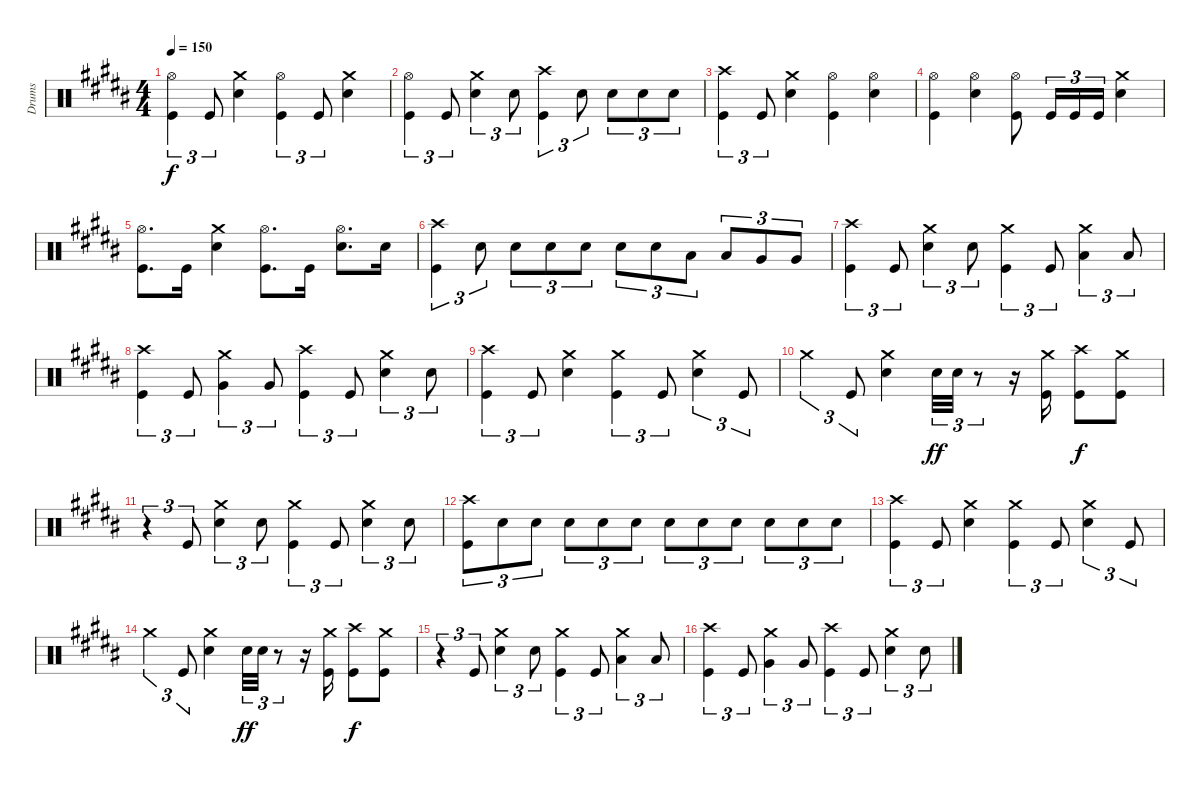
\track ("Drums" "Drums") {instrument percussion}
\staff {score}
\articulation defaults
\ts (4 4)
\tempo 150
\clef neutral
\ks g#minor
("Hi-Hat (open)" "Kick (hit)").4{tu (3 2) dy f} "Kick (hit)".8{tu (3 2)} ("Crash medium (hit)" "Snare (hit) 2").4 ("Hi-Hat (open)" "Kick (hit)").4{tu (3 2)} "Kick (hit)".8{tu (3 2)} ("Crash medium (hit)" "Snare (hit) 2").4 |
("Hi-Hat (open)" "Kick (hit)").4{tu (3 2)} "Kick (hit)".8{tu (3 2)} ("Crash medium (hit)" "Snare (hit) 2").4{tu (3 2)} "Snare (hit) 2".8{tu (3 2)} ("Kick (hit)" "Crash high (hit)").4{tu (3 2)} "Snare (hit) 2".8{tu (3 2)} "Snare (hit) 2".8{tu (3 2)} "Snare (hit) 2".8{tu (3 2)} "Snare (hit) 2".8{tu (3 2)} |
\ks b
("Crash high (hit)" "Kick (hit)").4{tu (3 2)} "Kick (hit)".8{tu (3 2)} ("Crash medium (hit)" "Snare (hit) 2").4 ("Kick (hit)" "Hi-Hat (open)").4 ("Snare (hit) 2" "Hi-Hat (open)").4 |
\ks g#minor
("Kick (hit)" "Hi-Hat (open)").4 ("Snare (hit) 2" "Hi-Hat (open)").4 ("Kick (hit)" "Hi-Hat (open)").8 "Kick (hit)".16{tu (3 2)} "Kick (hit)".16{tu (3 2)} "Kick (hit)".16{tu (3 2)} ("Snare (hit) 2" "Crash medium (hit)").4 |
("Hi-Hat (open)" "Kick (hit)").8{d} "Kick (hit)".16 ("Crash medium (hit)" "Snare (hit) 2").4 ("Hi-Hat (open)" "Kick (hit)").8{d} "Kick (hit)".16 ("Hi-Hat (open)" "Snare (hit) 2").8{d} "Snare (hit) 2".16 |
("Kick (hit)" "Crash high (hit)").4{tu (3 2)} "Snare (hit) 2".8{tu (3 2)} "Snare (hit) 2".8{tu (3 2)} "Snare (hit) 2".8{tu (3 2)} "Snare (hit) 2".8{tu (3 2)} "Snare (hit) 2".8{tu (3 2)} "Snare (hit) 2".8{tu (3 2)} "Low Tom (hit)".8{tu (3 2)} "Low Tom (hit)".8{tu (3 2)} "Very Low Tom (hit)".8{tu (3 2)} "Very Low Tom (hit)".8{tu (3 2)} |
\ks b
("Crash high (hit)" "Kick (hit)").4{tu (3 2)} "Kick (hit)".8{tu (3 2)} ("Snare (hit) 2" "Crash medium (hit)").4{tu (3 2)} "Snare (hit) 2".8{tu (3 2)} ("Crash medium (hit)" "Kick (hit)").4{tu (3 2)} "Kick (hit)".8{tu (3 2)} ("Crash medium (hit)" "Low Tom (hit)").4{tu (3 2)} "Low Tom (hit)".8{tu (3 2)} |
\ks g#minor
("Crash high (hit)" "Kick (hit)").4{tu (3 2)} "Kick (hit)".8{tu (3 2)} ("Very Low Tom (hit)" "Crash medium (hit)").4{tu (3 2)} "Very Low Tom (hit)".8{tu (3 2)} ("Crash high (hit)" "Kick (hit)").4{tu (3 2)} "Kick (hit)".8{tu (3 2)} ("Snare (hit) 2" "Crash medium (hit)").4{tu (3 2)} "Snare (hit) 2".8{tu (3 2)} |
("Crash high (hit)" "Kick (hit)").4{tu (3 2)} "Kick (hit)".8{tu (3 2)} ("Snare (hit) 2" "Crash medium (hit)").4 ("Crash medium (hit)" "Kick (hit)").4{tu (3 2)} "Kick (hit)".8{tu (3 2)} ("Snare (hit) 2" "Crash medium (hit)").4{tu (3 2)} "Kick (hit)".8{tu (3 2)} |
"Crash medium (hit)".4{tu (3 2)} "Kick (hit)".8{tu (3 2)} ("Snare (hit) 2" "Crash medium (hit)").4 "Snare (hit) 2".32{tu (3 2) dy ff} "Snare (hit) 2".32{tu (3 2)} r.8{tu (3 2)} r.16 ("Kick (hit)" "Crash medium (hit)").16 ("Crash high (hit)" "Kick (hit)").8{dy f} ("Crash medium (hit)" "Kick (hit)").8 |
\ks b
r.4{tu (3 2)} "Kick (hit)".8{tu (3 2)} ("Snare (hit) 2" "Crash medium (hit)").4{tu (3 2)} "Snare (hit) 2".8{tu (3 2)} ("Crash medium (hit)" "Kick (hit)").4{tu (3 2)} "Kick (hit)".8{tu (3 2)} ("Snare (hit) 2" "Crash medium (hit)").4{tu (3 2)} "Snare (hit) 2".8{tu (3 2)} |
\ks g#minor
("Crash high (hit)" "Kick (hit)").8{tu (3 2)} "Snare (hit) 2".8{tu (3 2)} "Snare (hit) 2".8{tu (3 2)} "Snare (hit) 2".8{tu (3 2)} "Snare (hit) 2".8{tu (3 2)} "Snare (hit) 2".8{tu (3 2)} "Snare (hit) 2".8{tu (3 2)} "Snare (hit) 2".8{tu (3 2)} "Snare (hit) 2".8{tu (3 2)} "Snare (hit) 2".8{tu (3 2)} "Snare (hit) 2".8{tu (3 2)} "Snare (hit) 2".8{tu (3 2)} |
("Crash high (hit)" "Kick (hit)").4{tu (3 2)} "Kick (hit)".8{tu (3 2)} ("Snare (hit) 2" "Crash medium (hit)").4 ("Crash medium (hit)" "Kick (hit)").4{tu (3 2)} "Kick (hit)".8{tu (3 2)} ("Snare (hit) 2" "Crash medium (hit)").4{tu (3 2)} "Kick (hit)".8{tu (3 2)} |
"Crash medium (hit)".4{tu (3 2)} "Kick (hit)".8{tu (3 2)} ("Snare (hit) 2" "Crash medium (hit)").4 "Snare (hit) 2".32{tu (3 2) dy ff} "Snare (hit) 2".32{tu (3 2)} r.8{tu (3 2)} r.16 ("Kick (hit)" "Crash medium (hit)").16 ("Crash high (hit)" "Kick (hit)").8{dy f} ("Crash medium (hit)" "Kick (hit)").8 |
\ks b
r.4{tu (3 2)} "Kick (hit)".8{tu (3 2)} ("Snare (hit) 2" "Crash medium (hit)").4{tu (3 2)} "Snare (hit) 2".8{tu (3 2)} ("Crash medium (hit)" "Kick (hit)").4{tu (3 2)} "Kick (hit)".8{tu (3 2)} ("Crash medium (hit)" "Low Tom (hit)").4{tu (3 2)} "Low Tom (hit)".8{tu (3 2)} |
\ks g#minor
("Crash high (hit)" "Kick (hit)").4{tu (3 2)} "Kick (hit)".8{tu (3 2)} ("Very Low Tom (hit)" "Crash medium (hit)").4{tu (3 2)} "Very Low Tom (hit)".8{tu (3 2)} ("Crash high (hit)" "Kick (hit)").4{tu (3 2)} "Kick (hit)".8{tu (3 2)} ("Snare (hit) 2" "Crash medium (hit)").4{tu (3 2)} "Snare (hit) 2".8{tu (3 2)}
